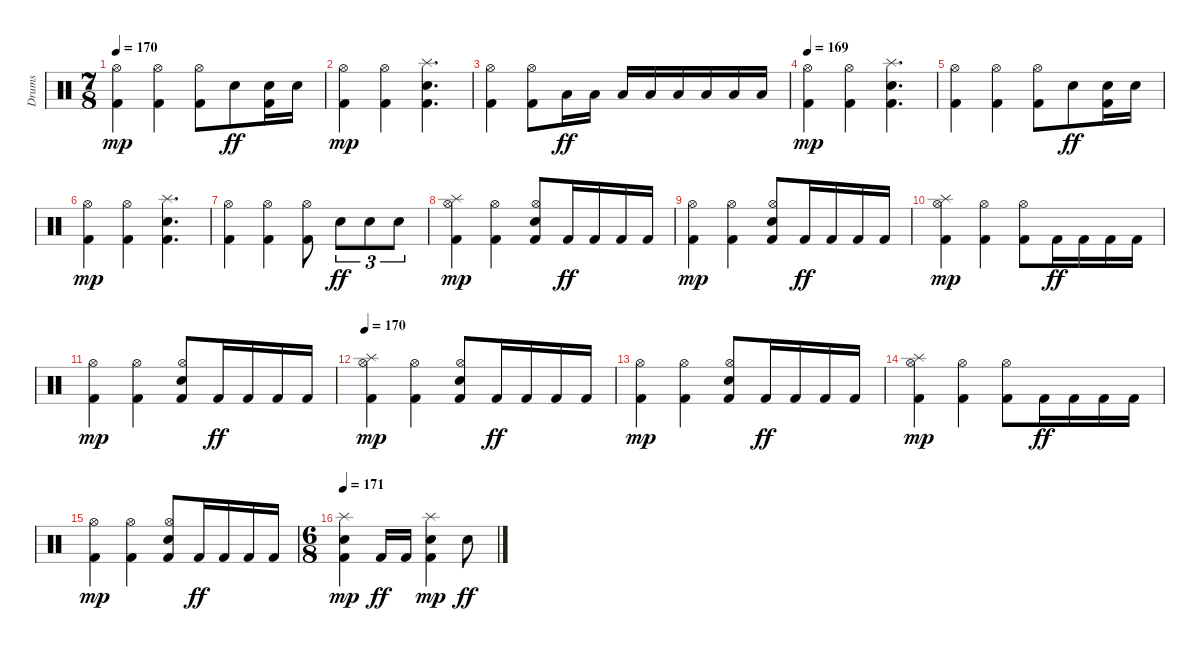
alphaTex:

\track ("Drums" "Drums") {instrument percussion}
\staff {score}
\articulation defaults
\ts (7 8)
\tempo 170
\clef neutral
\ks c
("Kick (hit) 2" "Hi-Hat (open)").4{dy mp} ("Kick (hit) 2" "Hi-Hat (open)").4 ("Kick (hit) 2" "Hi-Hat (open)").8 "Electric Snare (hit)".8{dy ff} ("Kick (hit) 2" "Electric Snare (hit)").16 "Electric Snare (hit)".16 |
("Kick (hit) 2" "Hi-Hat (open)").4{dy mp} ("Kick (hit) 2" "Hi-Hat (open)").4 ("Kick (hit) 2" "Electric Snare (hit)" "Splash (hit)").4{d} |
("Kick (hit) 2" "Hi-Hat (open)").4 ("Kick (hit) 2" "Hi-Hat (open)").8 "Low Tom (hit)".16{dy ff} "Low Tom (hit)".16 "Low Floor Tom (hit)".16 "Low Floor Tom (hit)".16 "Low Floor Tom (hit)".16 "Low Floor Tom (hit)".16 "Low Floor Tom (hit)".16 "Low Floor Tom (hit)".16 |
\tempo 169
("Kick (hit) 2" "Hi-Hat (open)").4{dy mp} ("Kick (hit) 2" "Hi-Hat (open)").4 ("Kick (hit) 2" "Electric Snare (hit)" "Splash (hit)").4{d} |
("Kick (hit) 2" "Hi-Hat (open)").4 ("Kick (hit) 2" "Hi-Hat (open)").4 ("Kick (hit) 2" "Hi-Hat (open)").8 "Electric Snare (hit)".8{dy ff} ("Kick (hit) 2" "Electric Snare (hit)").16 "Electric Snare (hit)".16 |
("Kick (hit) 2" "Hi-Hat (open)").4{dy mp} ("Kick (hit) 2" "Hi-Hat (open)").4 ("Kick (hit) 2" "Electric Snare (hit)" "Splash (hit)").4{d} |
("Kick (hit) 2" "Hi-Hat (open)").4 ("Kick (hit) 2" "Hi-Hat (open)").4 ("Kick (hit) 2" "Hi-Hat (open)").8 "Electric Snare (hit)".8{tu (3 2) dy ff} "Electric Snare (hit)".8{tu (3 2)} "Electric Snare (hit)".8{tu (3 2)} |
("Kick (hit) 2" "Hi-Hat (open)" "Splash (hit)").4{dy mp} ("Kick (hit) 2" "Hi-Hat (open)").4 ("Kick (hit) 2" "Electric Snare (hit)" "Hi-Hat (open)").8 "Kick (hit) 2".16{dy ff} "Kick (hit) 2".16 "Kick (hit) 2".16 "Kick (hit) 2".16 |
("Kick (hit) 2" "Hi-Hat (open)").4{dy mp} ("Kick (hit) 2" "Hi-Hat (open)").4 ("Kick (hit) 2" "Electric Snare (hit)" "Hi-Hat (open)").8 "Kick (hit) 2".16{dy ff} "Kick (hit) 2".16 "Kick (hit) 2".16 "Kick (hit) 2".16 |
("Kick (hit) 2" "Hi-Hat (open)" "Splash (hit)").4{dy mp} ("Kick (hit) 2" "Hi-Hat (open)").4 ("Kick (hit) 2" "Hi-Hat (open)").8 "Kick (hit) 2".16{dy ff} "Kick (hit) 2".16 "Kick (hit) 2".16 "Kick (hit) 2".16 |
("Kick (hit) 2" "Hi-Hat (open)").4{dy mp} ("Kick (hit) 2" "Hi-Hat (open)").4 ("Kick (hit) 2" "Electric Snare (hit)" "Hi-Hat (open)").8 "Kick (hit) 2".16{dy ff} "Kick (hit) 2".16 "Kick (hit) 2".16 "Kick (hit) 2".16 |
\tempo 170
("Kick (hit) 2" "Hi-Hat (open)" "Splash (hit)").4{dy mp} ("Kick (hit) 2" "Hi-Hat (open)").4 ("Kick (hit) 2" "Electric Snare (hit)" "Hi-Hat (open)").8 "Kick (hit) 2".16{dy ff} "Kick (hit) 2".16 "Kick (hit) 2".16 "Kick (hit) 2".16 |
("Kick (hit) 2" "Hi-Hat (open)").4{dy mp} ("Kick (hit) 2" "Hi-Hat (open)").4 ("Kick (hit) 2" "Electric Snare (hit)" "Hi-Hat (open)").8 "Kick (hit) 2".16{dy ff} "Kick (hit) 2".16 "Kick (hit) 2".16 "Kick (hit) 2".16 |
("Kick (hit) 2" "Hi-Hat (open)" "Splash (hit)").4{dy mp} ("Kick (hit) 2" "Hi-Hat (open)").4 ("Kick (hit) 2" "Hi-Hat (open)").8 "Kick (hit) 2".16{dy ff} "Kick (hit) 2".16 "Kick (hit) 2".16 "Kick (hit) 2".16 |
("Kick (hit) 2" "Hi-Hat (open)").4{dy mp} ("Kick (hit) 2" "Hi-Hat (open)").4 ("Kick (hit) 2" "Electric Snare (hit)" "Hi-Hat (open)").8 "Kick (hit) 2".16{dy ff} "Kick (hit) 2".16 "Kick (hit) 2".16 "Kick (hit) 2".16 |
\ts (6 8)
\tempo 171
("Kick (hit) 2" "Electric Snare (hit)" "Splash (hit)").4{dy mp} "Kick (hit) 2".16{dy ff} "Kick (hit) 2".16 ("Kick (hit) 2" "Electric Snare (hit)" "Splash (hit)").4{dy mp} "Electric Snare (hit)".8{dy ff}
